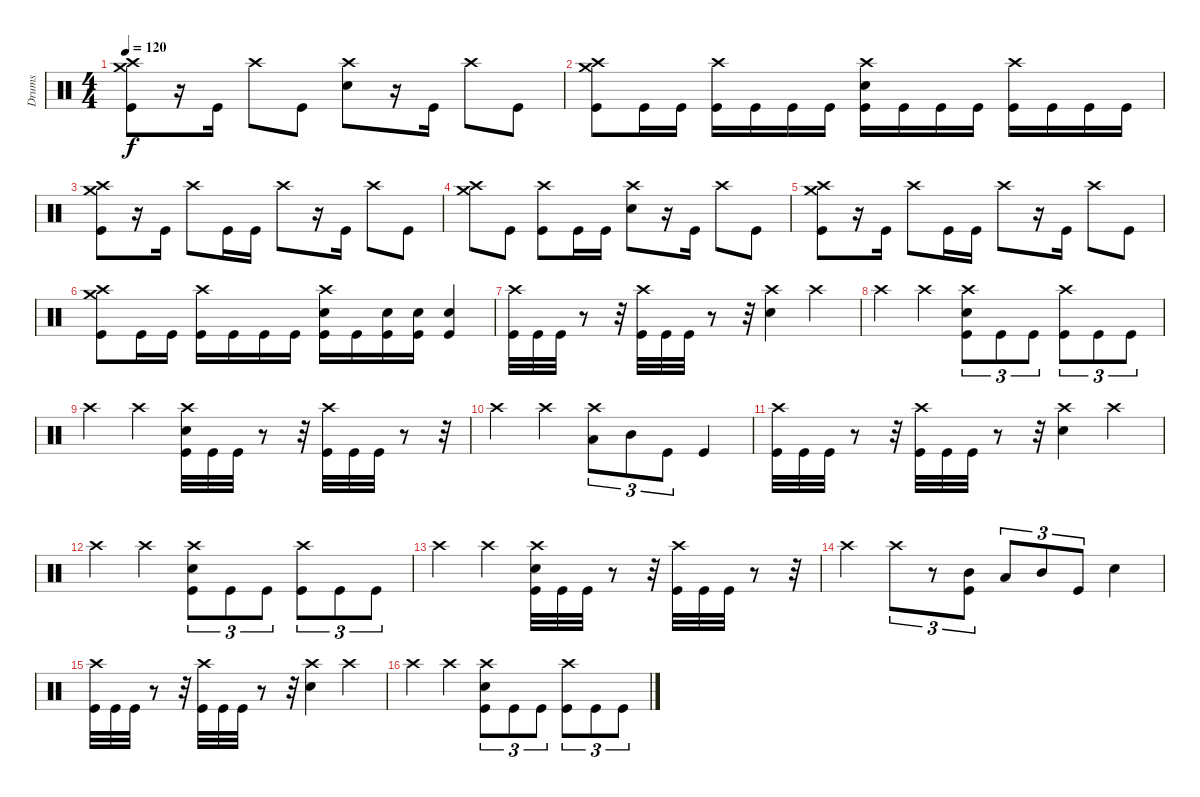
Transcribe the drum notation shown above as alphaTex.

\track ("Drums" "Drums") {instrument percussion}
\staff {score}
\articulation defaults
\ts (4 4)
\tempo 120
\clef neutral
\ks c
("Crash high (hit)" "Crash medium (hit)" "Kick (hit)").8{dy f} r.16 "Kick (hit)".16 "Crash high (hit)".8 "Kick (hit)".8 ("Crash high (hit)" "Snare (hit) 2").8 r.16 "Kick (hit)".16 "Crash high (hit)".8 "Kick (hit)".8 |
("Crash high (hit)" "Crash medium (hit)" "Kick (hit)").8 "Kick (hit)".16 "Kick (hit)".16 ("Crash high (hit)" "Kick (hit)").16 "Kick (hit)".16 "Kick (hit)".16 "Kick (hit)".16 ("Crash high (hit)" "Snare (hit) 2" "Kick (hit)").16 "Kick (hit)".16 "Kick (hit)".16 "Kick (hit)".16 ("Crash high (hit)" "Kick (hit)").16 "Kick (hit)".16 "Kick (hit)".16 "Kick (hit)".16 |
("Crash high (hit)" "Crash medium (hit)" "Kick (hit)").8 r.16 "Kick (hit)".16 "Crash high (hit)".8 "Kick (hit)".16 "Kick (hit)".16 "Crash high (hit)".8 r.16 "Kick (hit)".16 "Crash high (hit)".8 "Kick (hit)".8 |
("Crash high (hit)" "Crash medium (hit)").8 "Kick (hit)".8 ("Crash high (hit)" "Kick (hit)").8 "Kick (hit)".16 "Kick (hit)".16 ("Crash high (hit)" "Snare (hit) 2").8 r.16 "Kick (hit)".16 "Crash high (hit)".8 "Kick (hit)".8 |
("Crash high (hit)" "Crash medium (hit)" "Kick (hit)").8 r.16 "Kick (hit)".16 "Crash high (hit)".8 "Kick (hit)".16 "Kick (hit)".16 "Crash high (hit)".8 r.16 "Kick (hit)".16 "Crash high (hit)".8 "Kick (hit)".8 |
("Crash high (hit)" "Crash medium (hit)" "Kick (hit)").8 "Kick (hit)".16 "Kick (hit)".16 ("Crash high (hit)" "Kick (hit)").16 "Kick (hit)".16 "Kick (hit)".16 "Kick (hit)".16 ("Crash high (hit)" "Snare (hit) 2" "Kick (hit)").16 "Kick (hit)".16 ("Snare (hit) 2" "Kick (hit)").16 ("Snare (hit) 2" "Kick (hit)").16 ("Snare (hit) 2" "Kick (hit)").4 |
("Crash high (hit)" "Kick (hit)").32 "Kick (hit)".32 "Kick (hit)".32 r.8 r.32 ("Crash high (hit)" "Kick (hit)").32 "Kick (hit)".32 "Kick (hit)".32 r.8 r.32 ("Crash high (hit)" "Snare (hit) 2").4 "Crash high (hit)".4 |
"Crash high (hit)".4 "Crash high (hit)".4 ("Crash high (hit)" "Snare (hit) 2" "Kick (hit)").8{tu (3 2)} "Kick (hit)".8{tu (3 2)} "Kick (hit)".8{tu (3 2)} ("Crash high (hit)" "Kick (hit)").8{tu (3 2)} "Kick (hit)".8{tu (3 2)} "Kick (hit)".8{tu (3 2)} |
"Crash high (hit)".4 "Crash high (hit)".4 ("Crash high (hit)" "Snare (hit) 2" "Kick (hit)").32 "Kick (hit)".32 "Kick (hit)".32 r.8 r.32 ("Crash high (hit)" "Kick (hit)").32 "Kick (hit)".32 "Kick (hit)".32 r.8 r.32 |
"Crash high (hit)".4 "Crash high (hit)".4 ("Crash high (hit)" "Low Floor Tom (hit)").8{tu (3 2)} "Mid Tom (hit)".8{tu (3 2)} "Kick (hit)".8{tu (3 2)} "Kick (hit)".4 |
("Crash high (hit)" "Kick (hit)").32 "Kick (hit)".32 "Kick (hit)".32 r.8 r.32 ("Crash high (hit)" "Kick (hit)").32 "Kick (hit)".32 "Kick (hit)".32 r.8 r.32 ("Crash high (hit)" "Snare (hit) 2").4 "Crash high (hit)".4 |
"Crash high (hit)".4 "Crash high (hit)".4 ("Crash high (hit)" "Snare (hit) 2" "Kick (hit)").8{tu (3 2)} "Kick (hit)".8{tu (3 2)} "Kick (hit)".8{tu (3 2)} ("Crash high (hit)" "Kick (hit)").8{tu (3 2)} "Kick (hit)".8{tu (3 2)} "Kick (hit)".8{tu (3 2)} |
"Crash high (hit)".4 "Crash high (hit)".4 ("Crash high (hit)" "Snare (hit) 2" "Kick (hit)").32 "Kick (hit)".32 "Kick (hit)".32 r.8 r.32 ("Crash high (hit)" "Kick (hit)").32 "Kick (hit)".32 "Kick (hit)".32 r.8 r.32 |
"Crash high (hit)".4 "Crash high (hit)".8{tu (3 2)} r.8{tu (3 2)} ("Mid Tom (hit)" "Kick (hit)").8{tu (3 2)} "Low Floor Tom (hit)".8{tu (3 2)} "Mid Tom (hit)".8{tu (3 2)} "Kick (hit)".8{tu (3 2)} "Snare (hit) 2".4 |
("Crash high (hit)" "Kick (hit)").32 "Kick (hit)".32 "Kick (hit)".32 r.8 r.32 ("Crash high (hit)" "Kick (hit)").32 "Kick (hit)".32 "Kick (hit)".32 r.8 r.32 ("Crash high (hit)" "Snare (hit) 2").4 "Crash high (hit)".4 |
"Crash high (hit)".4 "Crash high (hit)".4 ("Crash high (hit)" "Snare (hit) 2" "Kick (hit)").8{tu (3 2)} "Kick (hit)".8{tu (3 2)} "Kick (hit)".8{tu (3 2)} ("Crash high (hit)" "Kick (hit)").8{tu (3 2)} "Kick (hit)".8{tu (3 2)} "Kick (hit)".8{tu (3 2)}
